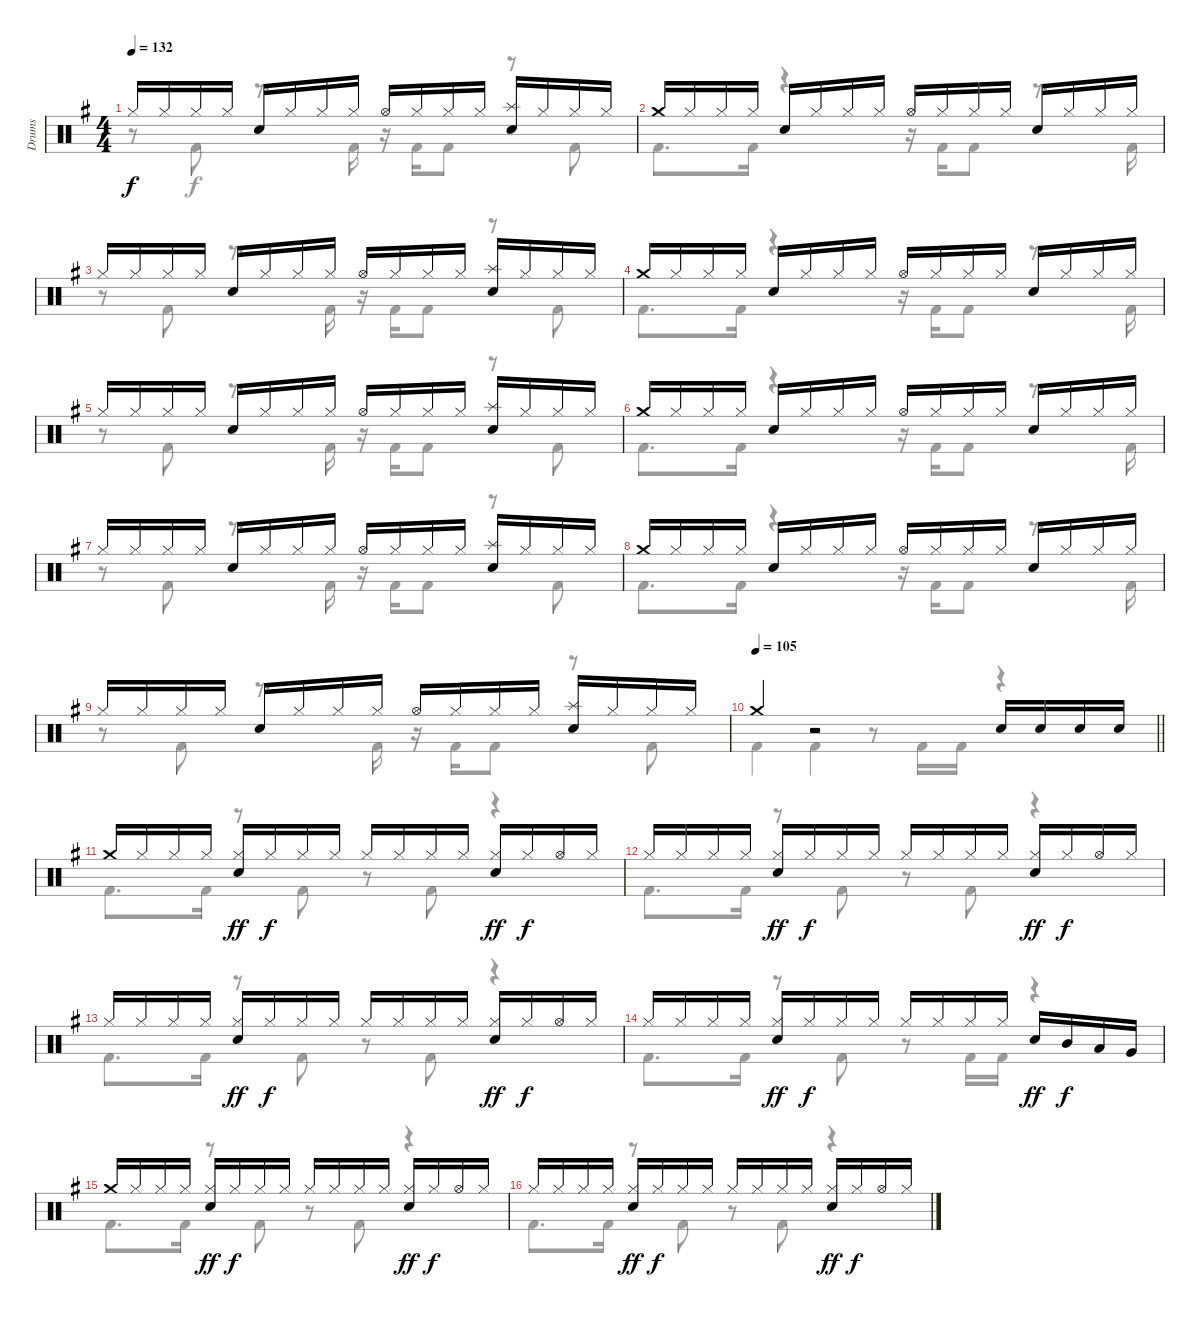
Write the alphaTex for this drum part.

\track ("Drums" "Drums") {instrument percussion}
\staff {score}
\articulation defaults
\voice
\ts (4 4)
\tempo 132
\clef neutral
\ks g "Hi-Hat (closed)".16{dy f} "Hi-Hat (closed)".16 "Hi-Hat (closed)".16 "Hi-Hat (closed)".16 "Electric Snare (hit)".16 "Hi-Hat (closed)".16 "Hi-Hat (closed)".16 "Hi-Hat (closed)".16 "Hi-Hat (open)".16 "Hi-Hat (closed)".16 "Hi-Hat (closed)".16 "Hi-Hat (closed)".16
("Splash (hit)" "Electric Snare (hit)").16 "Hi-Hat (closed)".16 "Hi-Hat (closed)".16 "Hi-Hat (closed)".16 |
"Crash medium (hit)".16 "Hi-Hat (closed)".16 "Hi-Hat (closed)".16 "Hi-Hat (closed)".16 "Electric Snare (hit)".16 "Hi-Hat (closed)".16 "Hi-Hat (closed)".16 "Hi-Hat (closed)".16 "Hi-Hat (open)".16 "Hi-Hat (closed)".16 "Hi-Hat (closed)".16 "Hi-Hat (closed)".16 "Electric Snare (hit)".16 "Hi-Hat (closed)".16 "Hi-Hat (closed)".16 "Hi-Hat (closed)".16 |
"Hi-Hat (closed)".16 "Hi-Hat (closed)".16 "Hi-Hat (closed)".16 "Hi-Hat (closed)".16 "Electric Snare (hit)".16 "Hi-Hat (closed)".16 "Hi-Hat (closed)".16 "Hi-Hat (closed)".16 "Hi-Hat (open)".16 "Hi-Hat (closed)".16 "Hi-Hat (closed)".16 "Hi-Hat (closed)".16 ("Splash (hit)" "Electric Snare (hit)").16 "Hi-Hat (closed)".16 "Hi-Hat (closed)".16 "Hi-Hat (closed)".16 |
"Crash medium (hit)".16 "Hi-Hat (closed)".16 "Hi-Hat (closed)".16 "Hi-Hat (closed)".16 "Electric Snare (hit)".16 "Hi-Hat (closed)".16 "Hi-Hat (closed)".16 "Hi-Hat (closed)".16 "Hi-Hat (open)".16 "Hi-Hat (closed)".16 "Hi-Hat (closed)".16 "Hi-Hat (closed)".16 "Electric Snare (hit)".16 "Hi-Hat (closed)".16 "Hi-Hat (closed)".16 "Hi-Hat (closed)".16 |
"Hi-Hat (closed)".16 "Hi-Hat (closed)".16 "Hi-Hat (closed)".16 "Hi-Hat (closed)".16 "Electric Snare (hit)".16 "Hi-Hat (closed)".16 "Hi-Hat (closed)".16 "Hi-Hat (closed)".16 "Hi-Hat (open)".16 "Hi-Hat (closed)".16 "Hi-Hat (closed)".16 "Hi-Hat (closed)".16 ("Splash (hit)" "Electric Snare (hit)").16 "Hi-Hat (closed)".16 "Hi-Hat (closed)".16 "Hi-Hat (closed)".16 |
"Crash medium (hit)".16 "Hi-Hat (closed)".16 "Hi-Hat (closed)".16 "Hi-Hat (closed)".16 "Electric Snare (hit)".16 "Hi-Hat (closed)".16 "Hi-Hat (closed)".16 "Hi-Hat (closed)".16 "Hi-Hat (open)".16 "Hi-Hat (closed)".16 "Hi-Hat (closed)".16 "Hi-Hat (closed)".16 "Electric Snare (hit)".16 "Hi-Hat (closed)".16 "Hi-Hat (closed)".16 "Hi-Hat (closed)".16 |
"Hi-Hat (closed)".16 "Hi-Hat (closed)".16 "Hi-Hat (closed)".16 "Hi-Hat (closed)".16 "Electric Snare (hit)".16 "Hi-Hat (closed)".16 "Hi-Hat (closed)".16 "Hi-Hat (closed)".16 "Hi-Hat (open)".16 "Hi-Hat (closed)".16 "Hi-Hat (closed)".16 "Hi-Hat (closed)".16 ("Splash (hit)" "Electric Snare (hit)").16 "Hi-Hat (closed)".16 "Hi-Hat (closed)".16 "Hi-Hat (closed)".16 |
"Crash medium (hit)".16 "Hi-Hat (closed)".16 "Hi-Hat (closed)".16 "Hi-Hat (closed)".16 "Electric Snare (hit)".16 "Hi-Hat (closed)".16 "Hi-Hat (closed)".16 "Hi-Hat (closed)".16 "Hi-Hat (open)".16 "Hi-Hat (closed)".16 "Hi-Hat (closed)".16 "Hi-Hat (closed)".16 "Electric Snare (hit)".16 "Hi-Hat (closed)".16 "Hi-Hat (closed)".16 "Hi-Hat (closed)".16 |
"Hi-Hat (closed)".16 "Hi-Hat (closed)".16 "Hi-Hat (closed)".16 "Hi-Hat (closed)".16 "Electric Snare (hit)".16 "Hi-Hat (closed)".16 "Hi-Hat (closed)".16 "Hi-Hat (closed)".16 "Hi-Hat (open)".16 "Hi-Hat (closed)".16 "Hi-Hat (closed)".16 "Hi-Hat (closed)".16 ("Splash (hit)" "Electric Snare (hit)").16 "Hi-Hat (closed)".16 "Hi-Hat (closed)".16 "Hi-Hat (closed)".16 |
\tempo 105
\barLineRight lightlight "Crash medium (hit)".4
r.2 "Electric Snare (hit)".16 "Electric Snare (hit)".16 "Electric Snare (hit)".16 "Electric Snare (hit)".16 |
"Crash medium (hit)".16 "Hi-Hat (closed)".16 "Hi-Hat (closed)".16 "Hi-Hat (closed)".16 ("Hi-Hat (closed)" "Electric Snare (hit)").16{dy ff} "Hi-Hat (closed)".16{dy f} "Hi-Hat (closed)".16 "Hi-Hat (closed)".16 "Hi-Hat (closed)".16 "Hi-Hat (closed)".16 "Hi-Hat (closed)".16 "Hi-Hat (closed)".16 ("Hi-Hat (closed)" "Electric Snare (hit)").16{dy ff} "Hi-Hat (closed)".16{dy f} "Hi-Hat (open)".16 "Hi-Hat (closed)".16 |
"Hi-Hat (closed)".16 "Hi-Hat (closed)".16 "Hi-Hat (closed)".16 "Hi-Hat (closed)".16 ("Hi-Hat (closed)" "Electric Snare (hit)").16{dy ff} "Hi-Hat (closed)".16{dy f} "Hi-Hat (closed)".16 "Hi-Hat (closed)".16 "Hi-Hat (closed)".16 "Hi-Hat (closed)".16 "Hi-Hat (closed)".16 "Hi-Hat (closed)".16 ("Hi-Hat (closed)" "Electric Snare (hit)").16{dy ff} "Hi-Hat (closed)".16{dy f} "Hi-Hat (open)".16 "Hi-Hat (closed)".16 |
"Hi-Hat (closed)".16 "Hi-Hat (closed)".16 "Hi-Hat (closed)".16 "Hi-Hat (closed)".16 ("Hi-Hat (closed)" "Electric Snare (hit)").16{dy ff} "Hi-Hat (closed)".16{dy f} "Hi-Hat (closed)".16 "Hi-Hat (closed)".16 "Hi-Hat (closed)".16 "Hi-Hat (closed)".16 "Hi-Hat (closed)".16 "Hi-Hat (closed)".16 ("Hi-Hat (closed)" "Electric Snare (hit)").16{dy ff} "Hi-Hat (closed)".16{dy f} "Hi-Hat (open)".16 "Hi-Hat (closed)".16 |
"Hi-Hat (closed)".16 "Hi-Hat (closed)".16 "Hi-Hat (closed)".16 "Hi-Hat (closed)".16 ("Hi-Hat (closed)" "Electric Snare (hit)").16{dy ff} "Hi-Hat (closed)".16{dy f} "Hi-Hat (closed)".16 "Hi-Hat (closed)".16 "Hi-Hat (closed)".16 "Hi-Hat (closed)".16 "Hi-Hat (closed)".16 "Hi-Hat (closed)".16 "Electric Snare (hit)".16{dy ff} "Mid Tom (hit)".16{dy f} "Low Tom (hit)".16 "Very Low Tom (hit)".16 |
"Crash medium (hit)".16 "Hi-Hat (closed)".16 "Hi-Hat (closed)".16 "Hi-Hat (closed)".16 ("Hi-Hat (closed)" "Electric Snare (hit)").16{dy ff} "Hi-Hat (closed)".16{dy f} "Hi-Hat (closed)".16 "Hi-Hat (closed)".16 "Hi-Hat (closed)".16 "Hi-Hat (closed)".16 "Hi-Hat (closed)".16 "Hi-Hat (closed)".16 ("Hi-Hat (closed)" "Electric Snare (hit)").16{dy ff} "Hi-Hat (closed)".16{dy f} "Hi-Hat (open)".16 "Hi-Hat (closed)".16 |
"Hi-Hat (closed)".16 "Hi-Hat (closed)".16 "Hi-Hat (closed)".16 "Hi-Hat (closed)".16 ("Hi-Hat (closed)" "Electric Snare (hit)").16{dy ff} "Hi-Hat (closed)".16{dy f} "Hi-Hat (closed)".16 "Hi-Hat (closed)".16 "Hi-Hat (closed)".16 "Hi-Hat (closed)".16 "Hi-Hat (closed)".16 "Hi-Hat (closed)".16 ("Hi-Hat (closed)" "Electric Snare (hit)").16{dy ff} "Hi-Hat (closed)".16{dy f} "Hi-Hat (open)".16 "Hi-Hat (closed)".16
\voice
\clef neutral
\ottava regular
\simile none
\ks g
r.8{dy f} "Kick (hit) 2".8 r.8{d} "Kick (hit) 2".16 r.16 "Kick (hit) 2".16 "Kick (hit) 2".8 r.8 "Kick (hit) 2".8 |
"Kick (hit) 2".8{d} "Kick (hit) 2".16 r.4 r.16 "Kick (hit) 2".16 "Kick (hit) 2".8 r.8{d} "Kick (hit) 2".16 |
r.8 "Kick (hit) 2".8 r.8{d} "Kick (hit) 2".16 r.16 "Kick (hit) 2".16 "Kick (hit) 2".8 r.8 "Kick (hit) 2".8 |
"Kick (hit) 2".8{d} "Kick (hit) 2".16 r.4 r.16 "Kick (hit) 2".16 "Kick (hit) 2".8 r.8{d} "Kick (hit) 2".16 |
r.8 "Kick (hit) 2".8 r.8{d} "Kick (hit) 2".16 r.16 "Kick (hit) 2".16 "Kick (hit) 2".8 r.8 "Kick (hit) 2".8 |
"Kick (hit) 2".8{d} "Kick (hit) 2".16 r.4 r.16 "Kick (hit) 2".16 "Kick (hit) 2".8 r.8{d} "Kick (hit) 2".16 |
r.8 "Kick (hit) 2".8 r.8{d} "Kick (hit) 2".16 r.16 "Kick (hit) 2".16 "Kick (hit) 2".8 r.8 "Kick (hit) 2".8 |
"Kick (hit) 2".8{d} "Kick (hit) 2".16 r.4 r.16 "Kick (hit) 2".16 "Kick (hit) 2".8 r.8{d} "Kick (hit) 2".16 |
r.8 "Kick (hit) 2".8 r.8{d} "Kick (hit) 2".16 r.16 "Kick (hit) 2".16 "Kick (hit) 2".8 r.8 "Kick (hit) 2".8 |
\barLineRight lightlight "Kick (hit) 2".4 "Kick (hit) 2".4
r.8 "Kick (hit) 2".16 "Kick (hit) 2".16 r.4 |
"Kick (hit) 2".8{d} "Kick (hit) 2".16 r.8 "Kick (hit) 2".8 r.8 "Kick (hit) 2".8 r.4 |
"Kick (hit) 2".8{d} "Kick (hit) 2".16 r.8 "Kick (hit) 2".8 r.8 "Kick (hit) 2".8 r.4 |
"Kick (hit) 2".8{d} "Kick (hit) 2".16 r.8 "Kick (hit) 2".8 r.8 "Kick (hit) 2".8 r.4 |
"Kick (hit) 2".8{d} "Kick (hit) 2".16 r.8 "Kick (hit) 2".8 r.8 "Kick (hit) 2".16 "Kick (hit) 2".16 r.4 |
"Kick (hit) 2".8{d} "Kick (hit) 2".16 r.8 "Kick (hit) 2".8 r.8 "Kick (hit) 2".8 r.4 |
"Kick (hit) 2".8{d} "Kick (hit) 2".16 r.8 "Kick (hit) 2".8 r.8 "Kick (hit) 2".8 r.4
